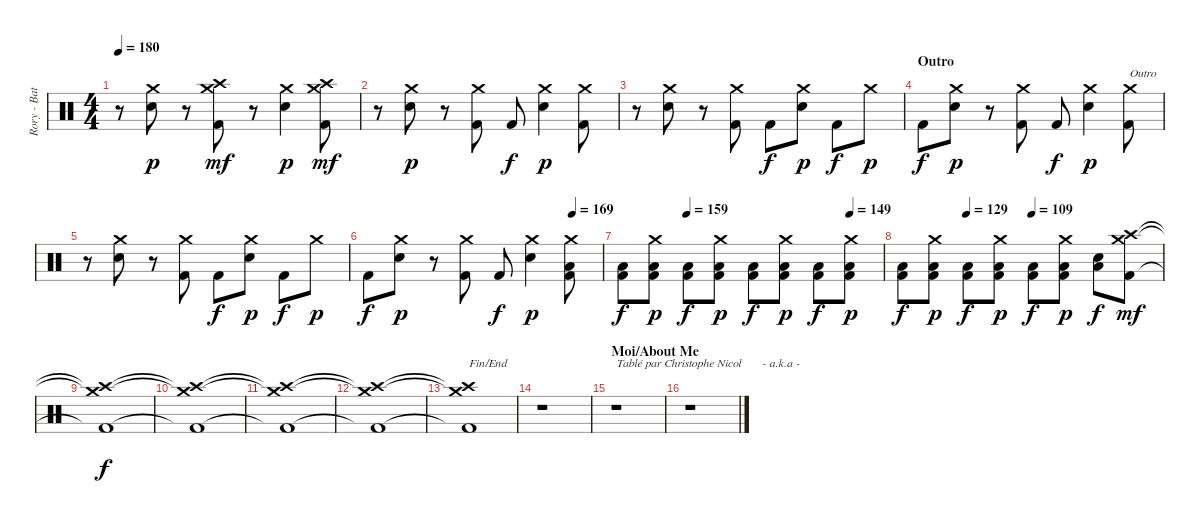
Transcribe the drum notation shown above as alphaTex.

\track ("Rory - Batterie/Drums" "Rory - Bat") {instrument percussion}
\staff {score}
\articulation defaults
\ts (4 4)
\tempo 180
\clef neutral
\ks c
r.8{dy mf} ("Crash medium (hit)" "Electric Snare (hit)").8{dy p} r.8 ("Crash medium (hit)" "Crash high (hit)" "Kick (hit) 2").8{dy mf} r.8 ("Crash medium (hit)" "Electric Snare (hit)").4{dy p} ("Crash medium (hit)" "Crash high (hit)" "Kick (hit) 2").8{dy mf} |
r.8 ("Crash medium (hit)" "Electric Snare (hit)").8{dy p} r.8 ("Crash medium (hit)" "Kick (hit) 2").8 "Kick (hit) 2".8{dy f} ("Crash medium (hit)" "Electric Snare (hit)").4{dy p} ("Crash medium (hit)" "Kick (hit) 2").8 |
r.8 ("Crash medium (hit)" "Electric Snare (hit)").8 r.8 ("Crash medium (hit)" "Kick (hit) 2").8 "Kick (hit) 2".8{dy f} ("Crash medium (hit)" "Electric Snare (hit)").8{dy p} "Kick (hit) 2".8{dy f} "Crash medium (hit)".8{dy p} |
\section ("" "Outro")
"Kick (hit) 2".8{dy f} ("Crash medium (hit)" "Electric Snare (hit)").8{dy p} r.8 ("Crash medium (hit)" "Kick (hit) 2").8 "Kick (hit) 2".8{dy f} ("Crash medium (hit)" "Electric Snare (hit)").4{dy p} ("Crash medium (hit)" "Kick (hit) 2").8{txt "Outro"} |
r.8 ("Crash medium (hit)" "Electric Snare (hit)").8 r.8 ("Crash medium (hit)" "Kick (hit) 2").8 "Kick (hit) 2".8{dy f} ("Crash medium (hit)" "Electric Snare (hit)").8{dy p} "Kick (hit) 2".8{dy f} "Crash medium (hit)".8{dy p} |
\tempo (169 0.875)
"Kick (hit) 2".8{dy f} ("Crash medium (hit)" "Electric Snare (hit)").8{dy p} r.8 ("Crash medium (hit)" "Kick (hit) 2").8 "Kick (hit) 2".8{dy f} ("Crash medium (hit)" "Electric Snare (hit)").4{dy p} ("Crash medium (hit)" "Low Floor Tom (hit)" "Kick (hit) 2").8 |
\tempo (159 0.25)
\tempo (149 0.875)
("Low Floor Tom (hit)" "Kick (hit) 2").8{dy f} ("Crash medium (hit)" "Low Floor Tom (hit)" "Kick (hit) 2").8{dy p} ("Low Floor Tom (hit)" "Kick (hit) 2").8{dy f} ("Crash medium (hit)" "Low Floor Tom (hit)" "Kick (hit) 2").8{dy p} ("Low Floor Tom (hit)" "Kick (hit) 2").8{dy f} ("Crash medium (hit)" "Low Floor Tom (hit)" "Kick (hit) 2").8{dy p} ("Low Floor Tom (hit)" "Kick (hit) 2").8{dy f} ("Crash medium (hit)" "Low Floor Tom (hit)" "Kick (hit) 2").8{dy p} |
\tempo (129 0.25)
\tempo (109 0.5)
("Low Floor Tom (hit)" "Kick (hit) 2").8{dy f} ("Crash medium (hit)" "Low Floor Tom (hit)" "Kick (hit) 2").8{dy p} ("Low Floor Tom (hit)" "Kick (hit) 2").8{dy f} ("Crash medium (hit)" "Low Floor Tom (hit)" "Kick (hit) 2").8{dy p} ("Low Floor Tom (hit)" "Kick (hit) 2").8{dy f} ("Crash medium (hit)" "Low Floor Tom (hit)" "Kick (hit) 2").8{dy p} ("Low Floor Tom (hit)" "Snare (hit)").8{dy f} ("Crash medium (hit)" "Crash high (hit)" "Kick (hit) 2").8{dy mf} |
("Crash medium (hit)"{t} "Crash high (hit)"{t} "Kick (hit) 2"{t}).1{dy f} |
("Crash medium (hit)"{t} "Crash high (hit)"{t} "Kick (hit) 2"{t}).1 |
("Crash medium (hit)"{t} "Crash high (hit)"{t} "Kick (hit) 2"{t}).1 |
("Crash medium (hit)"{t} "Crash high (hit)"{t} "Kick (hit) 2"{t}).1 |
("Crash medium (hit)"{t} "Crash high (hit)"{t} "Kick (hit) 2"{t}).1{txt "Fin/End"} |
r.1 |
\section ("" "Moi/About Me")
r.1{txt "Tablé par Christophe Nicol       - a.k.a -"} |
r.1
